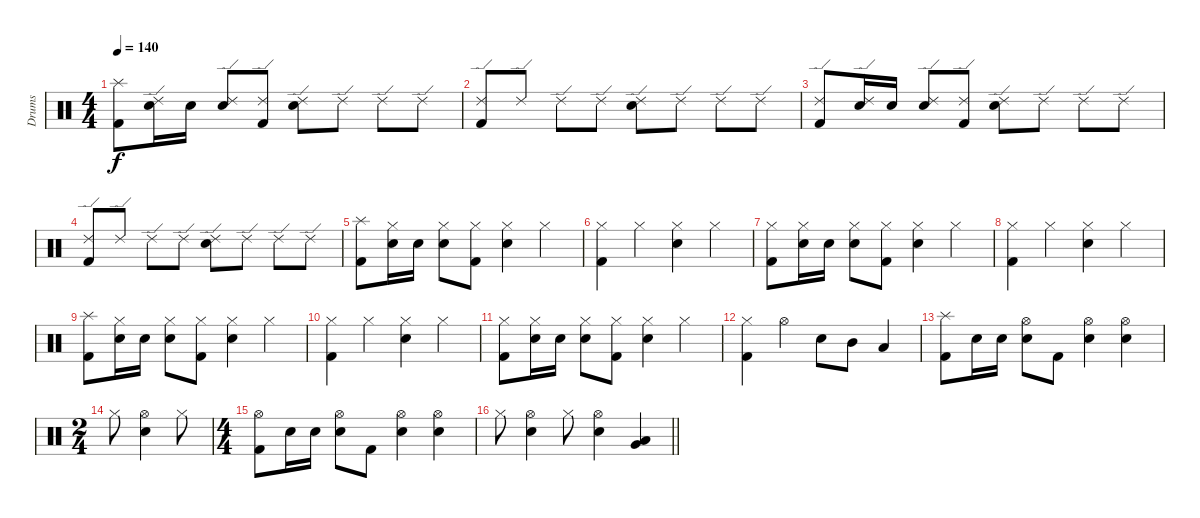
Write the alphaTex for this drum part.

\track ("Drums" "Drums") {instrument percussion}
\staff {score}
\articulation defaults
\ts (4 4)
\tempo 140
\clef neutral
\ks c
("Splash (hit)" "Kick (hit) 2").8{dy f} ("Ride (edge) 2" "Electric Snare (hit)").16 "Electric Snare (hit)".16 ("Ride (edge) 2" "Electric Snare (hit)").8 ("Ride (edge) 2" "Kick (hit) 2").8 ("Ride (edge) 2" "Electric Snare (hit)").8 "Ride (edge) 2".8 "Ride (edge) 2".8 "Ride (edge) 2".8 |
("Ride (edge) 2" "Kick (hit) 2").8 "Ride (edge) 2".8 "Ride (edge) 2".8 "Ride (edge) 2".8 ("Ride (edge) 2" "Electric Snare (hit)").8 "Ride (edge) 2".8 "Ride (edge) 2".8 "Ride (edge) 2".8 |
("Ride (edge) 2" "Kick (hit) 2").8 ("Ride (edge) 2" "Electric Snare (hit)").16 "Electric Snare (hit)".16 ("Ride (edge) 2" "Electric Snare (hit)").8 ("Ride (edge) 2" "Kick (hit) 2").8 ("Ride (edge) 2" "Electric Snare (hit)").8 "Ride (edge) 2".8 "Ride (edge) 2".8 "Ride (edge) 2".8 |
("Ride (edge) 2" "Kick (hit) 2").8 "Ride (edge) 2".8 "Ride (edge) 2".8 "Ride (edge) 2".8 ("Ride (edge) 2" "Electric Snare (hit)").8 "Ride (edge) 2".8 "Ride (edge) 2".8 "Ride (edge) 2".8 |
("Splash (hit)" "Kick (hit) 2").8 ("Hi-Hat (closed)" "Electric Snare (hit)").16 "Electric Snare (hit)".16 ("Hi-Hat (closed)" "Electric Snare (hit)").8 ("Hi-Hat (closed)" "Kick (hit) 2").8 ("Hi-Hat (closed)" "Electric Snare (hit)").4 "Hi-Hat (closed)".4 |
("Hi-Hat (closed)" "Kick (hit) 2").4 "Hi-Hat (closed)".4 ("Hi-Hat (closed)" "Electric Snare (hit)").4 "Hi-Hat (closed)".4 |
("Hi-Hat (closed)" "Kick (hit) 2").8 ("Hi-Hat (closed)" "Electric Snare (hit)").16 "Electric Snare (hit)".16 ("Hi-Hat (closed)" "Electric Snare (hit)").8 ("Hi-Hat (closed)" "Kick (hit) 2").8 ("Hi-Hat (closed)" "Electric Snare (hit)").4 "Hi-Hat (closed)".4 |
("Hi-Hat (closed)" "Kick (hit) 2").4 "Hi-Hat (closed)".4 ("Hi-Hat (closed)" "Electric Snare (hit)").4 "Hi-Hat (closed)".4 |
("Splash (hit)" "Kick (hit) 2").8 ("Hi-Hat (closed)" "Electric Snare (hit)").16 "Electric Snare (hit)".16 ("Hi-Hat (closed)" "Electric Snare (hit)").8 ("Hi-Hat (closed)" "Kick (hit) 2").8 ("Hi-Hat (closed)" "Electric Snare (hit)").4 "Hi-Hat (closed)".4 |
("Hi-Hat (closed)" "Kick (hit) 2").4 "Hi-Hat (closed)".4 ("Hi-Hat (closed)" "Electric Snare (hit)").4 "Hi-Hat (closed)".4 |
("Hi-Hat (closed)" "Kick (hit) 2").8 ("Hi-Hat (closed)" "Electric Snare (hit)").16 "Electric Snare (hit)".16 ("Hi-Hat (closed)" "Electric Snare (hit)").8 ("Hi-Hat (closed)" "Kick (hit) 2").8 ("Hi-Hat (closed)" "Electric Snare (hit)").4 "Hi-Hat (closed)".4 |
("Hi-Hat (closed)" "Kick (hit) 2").4 "Hi-Hat (open)".4 "Electric Snare (hit)".8 "Mid Tom (hit)".8 "Low Tom (hit)".4 |
("Splash (hit)" "Kick (hit) 2").8 "Electric Snare (hit)".16 "Electric Snare (hit)".16 ("Hi-Hat (open)" "Electric Snare (hit)").8 "Kick (hit) 2".8 ("Hi-Hat (open)" "Electric Snare (hit)").4 ("Hi-Hat (open)" "Electric Snare (hit)").4 |
\ts (2 4)
"Hi-Hat (closed)".8 ("Hi-Hat (open)" "Electric Snare (hit)").4 "Hi-Hat (closed)".8 |
\ts (4 4)
("Hi-Hat (open)" "Kick (hit) 2").8 "Electric Snare (hit)".16 "Electric Snare (hit)".16 ("Hi-Hat (open)" "Electric Snare (hit)").8 "Kick (hit) 2".8 ("Hi-Hat (open)" "Electric Snare (hit)").4 ("Hi-Hat (open)" "Electric Snare (hit)").4 |
\barLineRight lightlight "Hi-Hat (closed)".8
("Hi-Hat (open)" "Electric Snare (hit)").4 "Hi-Hat (closed)".8 ("Hi-Hat (open)" "Electric Snare (hit)").4 ("Very Low Tom (hit)" "Low Floor Tom (hit)").4
